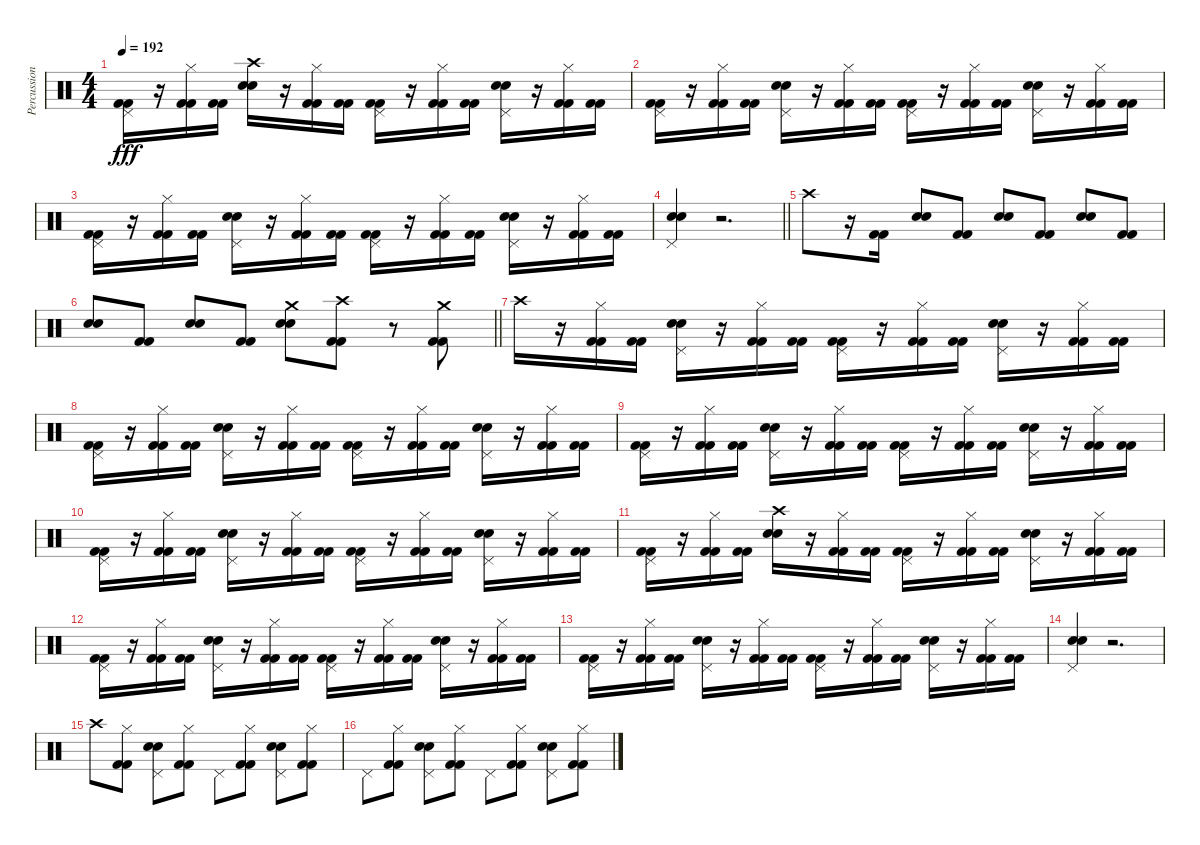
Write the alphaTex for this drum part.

\track ("Percussion" "Percussion") {instrument percussion}
\staff {score}
\articulation defaults
\ts (4 4)
\tempo 192
\clef neutral
\ks c
("Pedal Hi-Hat (hit)" "Kick (hit) 2" "Kick (hit) 2").16{dy fff} r.16 ("Hi-Hat (closed)" "Kick (hit) 2" "Kick (hit) 2").16 ("Kick (hit) 2" "Kick (hit) 2").16 ("Crash high (hit)" "Snare (hit) 2" "Electric Snare (hit)").16 r.16 ("Hi-Hat (closed)" "Kick (hit) 2" "Kick (hit) 2").16 ("Kick (hit) 2" "Kick (hit) 2").16 ("Pedal Hi-Hat (hit)" "Kick (hit) 2" "Kick (hit) 2").16 r.16 ("Hi-Hat (closed)" "Kick (hit) 2" "Kick (hit) 2").16 ("Kick (hit) 2" "Kick (hit) 2").16 ("Pedal Hi-Hat (hit)" "Snare (hit) 2" "Electric Snare (hit)").16 r.16 ("Hi-Hat (closed)" "Kick (hit) 2" "Kick (hit) 2").16 ("Kick (hit) 2" "Kick (hit) 2").16 |
("Pedal Hi-Hat (hit)" "Kick (hit) 2" "Kick (hit) 2").16 r.16 ("Hi-Hat (closed)" "Kick (hit) 2" "Kick (hit) 2").16 ("Kick (hit) 2" "Kick (hit) 2").16 ("Pedal Hi-Hat (hit)" "Snare (hit) 2" "Electric Snare (hit)").16 r.16 ("Hi-Hat (closed)" "Kick (hit) 2" "Kick (hit) 2").16 ("Kick (hit) 2" "Kick (hit) 2").16 ("Pedal Hi-Hat (hit)" "Kick (hit) 2" "Kick (hit) 2").16 r.16 ("Hi-Hat (closed)" "Kick (hit) 2" "Kick (hit) 2").16 ("Kick (hit) 2" "Kick (hit) 2").16 ("Pedal Hi-Hat (hit)" "Snare (hit) 2" "Electric Snare (hit)").16 r.16 ("Hi-Hat (closed)" "Kick (hit) 2" "Kick (hit) 2").16 ("Kick (hit) 2" "Kick (hit) 2").16 |
("Pedal Hi-Hat (hit)" "Kick (hit) 2" "Kick (hit) 2").16 r.16 ("Hi-Hat (closed)" "Kick (hit) 2" "Kick (hit) 2").16 ("Kick (hit) 2" "Kick (hit) 2").16 ("Pedal Hi-Hat (hit)" "Snare (hit) 2" "Electric Snare (hit)").16 r.16 ("Hi-Hat (closed)" "Kick (hit) 2" "Kick (hit) 2").16 ("Kick (hit) 2" "Kick (hit) 2").16 ("Pedal Hi-Hat (hit)" "Kick (hit) 2" "Kick (hit) 2").16 r.16 ("Hi-Hat (closed)" "Kick (hit) 2" "Kick (hit) 2").16 ("Kick (hit) 2" "Kick (hit) 2").16 ("Pedal Hi-Hat (hit)" "Snare (hit) 2" "Electric Snare (hit)").16 r.16 ("Hi-Hat (closed)" "Kick (hit) 2" "Kick (hit) 2").16 ("Kick (hit) 2" "Kick (hit) 2").16 |
\barLineRight lightlight
("Pedal Hi-Hat (hit)" "Snare (hit) 2" "Electric Snare (hit)").4 r.2{d} |
"Crash high (hit)".8 r.16 ("Kick (hit) 2" "Kick (hit) 2").16 ("Snare (hit) 2" "Electric Snare (hit)").8 ("Kick (hit) 2" "Kick (hit) 2").8 ("Snare (hit) 2" "Electric Snare (hit)").8 ("Kick (hit) 2" "Kick (hit) 2").8 ("Snare (hit) 2" "Electric Snare (hit)").8 ("Kick (hit) 2" "Kick (hit) 2").8 |
\barLineRight lightlight
("Snare (hit) 2" "Electric Snare (hit)").8 ("Kick (hit) 2" "Kick (hit) 2").8 ("Snare (hit) 2" "Electric Snare (hit)").8 ("Kick (hit) 2" "Kick (hit) 2").8 ("Crash medium (hit)" "Snare (hit) 2" "Electric Snare (hit)").8 ("Crash high (hit)" "Kick (hit) 2" "Kick (hit) 2").8 r.8 ("Crash medium (hit)" "Kick (hit) 2" "Kick (hit) 2").8 |
"Crash high (hit)".16 r.16 ("Hi-Hat (closed)" "Kick (hit) 2" "Kick (hit) 2").16 ("Kick (hit) 2" "Kick (hit) 2").16 ("Pedal Hi-Hat (hit)" "Snare (hit) 2" "Electric Snare (hit)").16 r.16 ("Hi-Hat (closed)" "Kick (hit) 2" "Kick (hit) 2").16 ("Kick (hit) 2" "Kick (hit) 2").16 ("Pedal Hi-Hat (hit)" "Kick (hit) 2" "Kick (hit) 2").16 r.16 ("Hi-Hat (closed)" "Kick (hit) 2" "Kick (hit) 2").16 ("Kick (hit) 2" "Kick (hit) 2").16 ("Pedal Hi-Hat (hit)" "Snare (hit) 2" "Electric Snare (hit)").16 r.16 ("Hi-Hat (closed)" "Kick (hit) 2" "Kick (hit) 2").16 ("Kick (hit) 2" "Kick (hit) 2").16 |
("Pedal Hi-Hat (hit)" "Kick (hit) 2" "Kick (hit) 2").16 r.16 ("Hi-Hat (closed)" "Kick (hit) 2" "Kick (hit) 2").16 ("Kick (hit) 2" "Kick (hit) 2").16 ("Pedal Hi-Hat (hit)" "Snare (hit) 2" "Electric Snare (hit)").16 r.16 ("Hi-Hat (closed)" "Kick (hit) 2" "Kick (hit) 2").16 ("Kick (hit) 2" "Kick (hit) 2").16 ("Pedal Hi-Hat (hit)" "Kick (hit) 2" "Kick (hit) 2").16 r.16 ("Hi-Hat (closed)" "Kick (hit) 2" "Kick (hit) 2").16 ("Kick (hit) 2" "Kick (hit) 2").16 ("Pedal Hi-Hat (hit)" "Snare (hit) 2" "Electric Snare (hit)").16 r.16 ("Hi-Hat (closed)" "Kick (hit) 2" "Kick (hit) 2").16 ("Kick (hit) 2" "Kick (hit) 2").16 |
("Pedal Hi-Hat (hit)" "Kick (hit) 2" "Kick (hit) 2").16 r.16 ("Hi-Hat (closed)" "Kick (hit) 2" "Kick (hit) 2").16 ("Kick (hit) 2" "Kick (hit) 2").16 ("Pedal Hi-Hat (hit)" "Snare (hit) 2" "Electric Snare (hit)").16 r.16 ("Hi-Hat (closed)" "Kick (hit) 2" "Kick (hit) 2").16 ("Kick (hit) 2" "Kick (hit) 2").16 ("Pedal Hi-Hat (hit)" "Kick (hit) 2" "Kick (hit) 2").16 r.16 ("Hi-Hat (closed)" "Kick (hit) 2" "Kick (hit) 2").16 ("Kick (hit) 2" "Kick (hit) 2").16 ("Pedal Hi-Hat (hit)" "Snare (hit) 2" "Electric Snare (hit)").16 r.16 ("Hi-Hat (closed)" "Kick (hit) 2" "Kick (hit) 2").16 ("Kick (hit) 2" "Kick (hit) 2").16 |
("Pedal Hi-Hat (hit)" "Kick (hit) 2" "Kick (hit) 2").16 r.16 ("Hi-Hat (closed)" "Kick (hit) 2" "Kick (hit) 2").16 ("Kick (hit) 2" "Kick (hit) 2").16 ("Pedal Hi-Hat (hit)" "Snare (hit) 2" "Electric Snare (hit)").16 r.16 ("Hi-Hat (closed)" "Kick (hit) 2" "Kick (hit) 2").16 ("Kick (hit) 2" "Kick (hit) 2").16 ("Pedal Hi-Hat (hit)" "Kick (hit) 2" "Kick (hit) 2").16 r.16 ("Hi-Hat (closed)" "Kick (hit) 2" "Kick (hit) 2").16 ("Kick (hit) 2" "Kick (hit) 2").16 ("Pedal Hi-Hat (hit)" "Snare (hit) 2" "Electric Snare (hit)").16 r.16 ("Hi-Hat (closed)" "Kick (hit) 2" "Kick (hit) 2").16 ("Kick (hit) 2" "Kick (hit) 2").16 |
("Pedal Hi-Hat (hit)" "Kick (hit) 2" "Kick (hit) 2").16 r.16 ("Hi-Hat (closed)" "Kick (hit) 2" "Kick (hit) 2").16 ("Kick (hit) 2" "Kick (hit) 2").16 ("Crash high (hit)" "Snare (hit) 2" "Electric Snare (hit)").16 r.16 ("Hi-Hat (closed)" "Kick (hit) 2" "Kick (hit) 2").16 ("Kick (hit) 2" "Kick (hit) 2").16 ("Pedal Hi-Hat (hit)" "Kick (hit) 2" "Kick (hit) 2").16 r.16 ("Hi-Hat (closed)" "Kick (hit) 2" "Kick (hit) 2").16 ("Kick (hit) 2" "Kick (hit) 2").16 ("Pedal Hi-Hat (hit)" "Snare (hit) 2" "Electric Snare (hit)").16 r.16 ("Hi-Hat (closed)" "Kick (hit) 2" "Kick (hit) 2").16 ("Kick (hit) 2" "Kick (hit) 2").16 |
("Pedal Hi-Hat (hit)" "Kick (hit) 2" "Kick (hit) 2").16 r.16 ("Hi-Hat (closed)" "Kick (hit) 2" "Kick (hit) 2").16 ("Kick (hit) 2" "Kick (hit) 2").16 ("Pedal Hi-Hat (hit)" "Snare (hit) 2" "Electric Snare (hit)").16 r.16 ("Hi-Hat (closed)" "Kick (hit) 2" "Kick (hit) 2").16 ("Kick (hit) 2" "Kick (hit) 2").16 ("Pedal Hi-Hat (hit)" "Kick (hit) 2" "Kick (hit) 2").16 r.16 ("Hi-Hat (closed)" "Kick (hit) 2" "Kick (hit) 2").16 ("Kick (hit) 2" "Kick (hit) 2").16 ("Pedal Hi-Hat (hit)" "Snare (hit) 2" "Electric Snare (hit)").16 r.16 ("Hi-Hat (closed)" "Kick (hit) 2" "Kick (hit) 2").16 ("Kick (hit) 2" "Kick (hit) 2").16 |
("Pedal Hi-Hat (hit)" "Kick (hit) 2" "Kick (hit) 2").16 r.16 ("Hi-Hat (closed)" "Kick (hit) 2" "Kick (hit) 2").16 ("Kick (hit) 2" "Kick (hit) 2").16 ("Pedal Hi-Hat (hit)" "Snare (hit) 2" "Electric Snare (hit)").16 r.16 ("Hi-Hat (closed)" "Kick (hit) 2" "Kick (hit) 2").16 ("Kick (hit) 2" "Kick (hit) 2").16 ("Pedal Hi-Hat (hit)" "Kick (hit) 2" "Kick (hit) 2").16 r.16 ("Hi-Hat (closed)" "Kick (hit) 2" "Kick (hit) 2").16 ("Kick (hit) 2" "Kick (hit) 2").16 ("Pedal Hi-Hat (hit)" "Snare (hit) 2" "Electric Snare (hit)").16 r.16 ("Hi-Hat (closed)" "Kick (hit) 2" "Kick (hit) 2").16 ("Kick (hit) 2" "Kick (hit) 2").16 |
("Pedal Hi-Hat (hit)" "Snare (hit) 2" "Electric Snare (hit)").4 r.2{d} |
"Crash high (hit)".8 ("Hi-Hat (closed)" "Kick (hit) 2" "Kick (hit) 2").8 ("Pedal Hi-Hat (hit)" "Snare (hit) 2" "Electric Snare (hit)").8 ("Hi-Hat (closed)" "Kick (hit) 2" "Kick (hit) 2").8 "Pedal Hi-Hat (hit)".8 ("Hi-Hat (closed)" "Kick (hit) 2" "Kick (hit) 2").8 ("Pedal Hi-Hat (hit)" "Snare (hit) 2" "Electric Snare (hit)").8 ("Hi-Hat (closed)" "Kick (hit) 2" "Kick (hit) 2").8 |
"Pedal Hi-Hat (hit)".8 ("Hi-Hat (closed)" "Kick (hit) 2" "Kick (hit) 2").8 ("Pedal Hi-Hat (hit)" "Snare (hit) 2" "Electric Snare (hit)").8 ("Hi-Hat (closed)" "Kick (hit) 2" "Kick (hit) 2").8 "Pedal Hi-Hat (hit)".8 ("Hi-Hat (closed)" "Kick (hit) 2" "Kick (hit) 2").8 ("Pedal Hi-Hat (hit)" "Snare (hit) 2" "Electric Snare (hit)").8 ("Hi-Hat (closed)" "Kick (hit) 2" "Kick (hit) 2").8
